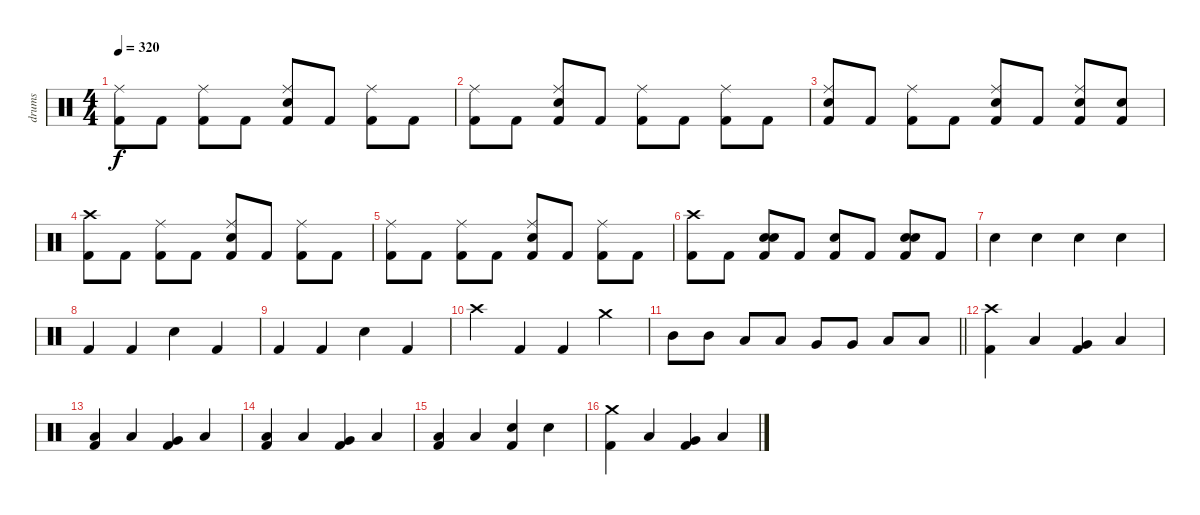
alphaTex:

\track ("drums" "drums") {instrument percussion}
\staff {score}
\articulation defaults
\ts (4 4)
\tempo 320
\clef neutral
\ks c
("Kick (hit) 2" "Ride (middle)").8{dy f} "Kick (hit) 2".8 ("Kick (hit) 2" "Ride (middle)").8 "Kick (hit) 2".8 ("Kick (hit) 2" "Ride (middle)" "Snare (hit) 2").8 "Kick (hit) 2".8 ("Kick (hit) 2" "Ride (middle)").8 "Kick (hit) 2".8 |
("Kick (hit) 2" "Ride (middle)").8 "Kick (hit) 2".8 ("Kick (hit) 2" "Ride (middle)" "Snare (hit) 2").8 "Kick (hit) 2".8 ("Kick (hit) 2" "Ride (middle)").8 "Kick (hit) 2".8 ("Kick (hit) 2" "Ride (middle)").8 "Kick (hit) 2".8 |
("Kick (hit) 2" "Ride (middle)" "Snare (hit) 2").8 "Kick (hit) 2".8 ("Kick (hit) 2" "Ride (middle)").8 "Kick (hit) 2".8 ("Kick (hit) 2" "Ride (middle)" "Snare (hit) 2").8 "Kick (hit) 2".8 ("Kick (hit) 2" "Ride (middle)" "Snare (hit) 2").8 ("Kick (hit) 2" "Snare (hit) 2").8 |
("Kick (hit) 2" "Crash high (hit)").8 "Kick (hit) 2".8 ("Kick (hit) 2" "Ride (middle)").8 "Kick (hit) 2".8 ("Kick (hit) 2" "Ride (middle)" "Snare (hit) 2").8 "Kick (hit) 2".8 ("Kick (hit) 2" "Ride (middle)").8 "Kick (hit) 2".8 |
("Kick (hit) 2" "Ride (middle)").8 "Kick (hit) 2".8 ("Kick (hit) 2" "Ride (middle)").8 "Kick (hit) 2".8 ("Kick (hit) 2" "Ride (middle)" "Snare (hit) 2").8 "Kick (hit) 2".8 ("Kick (hit) 2" "Ride (middle)").8 "Kick (hit) 2".8 |
("Kick (hit) 2" "Crash high (hit)").8 "Kick (hit) 2".8 ("Snare (hit)" "Kick (hit) 2" "Snare (hit) 2").8 "Kick (hit) 2".8 ("Snare (hit)" "Kick (hit) 2").8 "Kick (hit) 2".8 ("Snare (hit)" "Kick (hit) 2" "Snare (hit) 2").8 "Kick (hit) 2".8 |
"Snare (hit) 2".4 "Snare (hit) 2".4 "Snare (hit) 2".4 "Snare (hit) 2".4 |
"Kick (hit) 2".4 "Kick (hit) 2".4 "Snare (hit) 2".4 "Kick (hit) 2".4 |
"Kick (hit) 2".4 "Kick (hit) 2".4 "Snare (hit) 2".4 "Kick (hit) 2".4 |
"Crash high (hit)".4 "Kick (hit) 2".4 "Kick (hit) 2".4 "Crash medium (hit)".4 |
\barLineRight lightlight "Mid Tom (hit)".8 "Mid Tom (hit)".8 "Low Tom (hit)".8 "Low Tom (hit)".8 "Very Low Tom (hit)".8 "Very Low Tom (hit)".8 "Low Floor Tom (hit)".8 "Low Floor Tom (hit)".8
|
("Crash high (hit)" "Kick (hit) 2").4 "Low Floor Tom (hit)".4 ("Very Low Tom (hit)" "Kick (hit) 2").4 "Low Floor Tom (hit)".4 |
("Low Floor Tom (hit)" "Kick (hit) 2").4 "Low Floor Tom (hit)".4 ("Very Low Tom (hit)" "Kick (hit) 2").4 "Low Floor Tom (hit)".4 |
("Low Floor Tom (hit)" "Kick (hit) 2").4 "Low Floor Tom (hit)".4 ("Very Low Tom (hit)" "Kick (hit) 2").4 "Low Floor Tom (hit)".4 |
("Low Floor Tom (hit)" "Kick (hit) 2").4 "Low Floor Tom (hit)".4 ("Snare (hit) 2" "Kick (hit) 2").4 "Snare (hit) 2".4 |
("Crash medium (hit)" "Kick (hit) 2").4 "Low Floor Tom (hit)".4 ("Very Low Tom (hit)" "Kick (hit) 2").4 "Low Floor Tom (hit)".4
